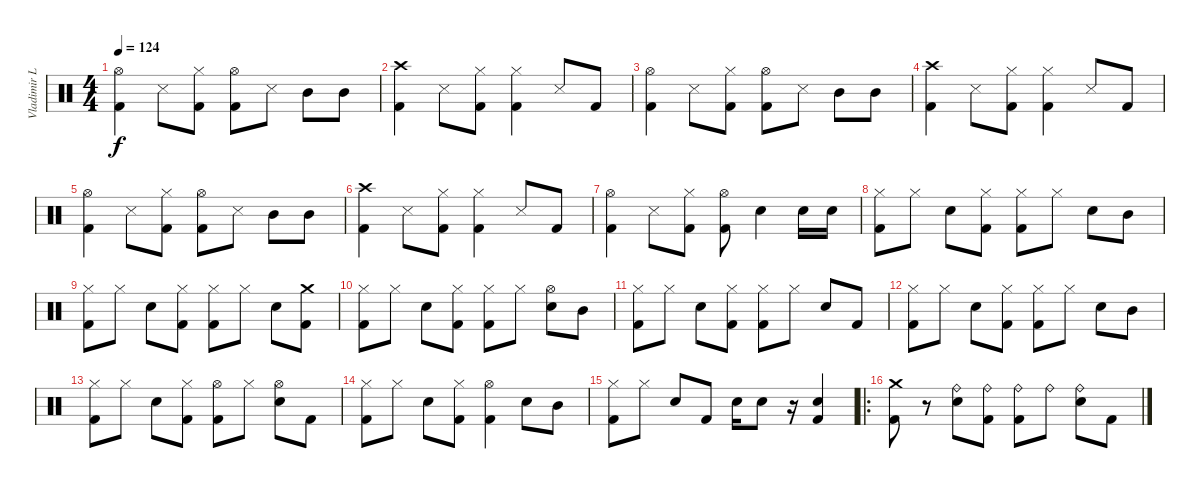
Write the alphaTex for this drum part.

\track ("Vladimir L." "Vladimir L") {instrument percussion}
\staff {score}
\articulation defaults
\ts (4 4)
\tempo 124
\clef neutral
\ks c
("Kick (hit) 2" "Hi-Hat (open)").4{dy f} "Snare (side stick) 3".8 ("Kick (hit) 2" "Hi-Hat (closed)").8 ("Kick (hit) 2" "Hi-Hat (open)").8 "Snare (side stick) 3".8 "Mid Tom (hit)".8 "Mid Tom (hit)".8 |
("Kick (hit) 2" "Crash high (hit)").4 "Snare (side stick) 3".8 ("Kick (hit) 2" "Hi-Hat (closed)").8 ("Kick (hit) 2" "Hi-Hat (closed)").4 "Snare (side stick) 3".8 "Kick (hit) 2".8 |
("Kick (hit) 2" "Hi-Hat (open)").4 "Snare (side stick) 3".8 ("Kick (hit) 2" "Hi-Hat (closed)").8 ("Kick (hit) 2" "Hi-Hat (open)").8 "Snare (side stick) 3".8 "Mid Tom (hit)".8 "Mid Tom (hit)".8 |
("Kick (hit) 2" "Crash high (hit)").4 "Snare (side stick) 3".8 ("Kick (hit) 2" "Hi-Hat (closed)").8 ("Kick (hit) 2" "Hi-Hat (closed)").4 "Snare (side stick) 3".8 "Kick (hit) 2".8 |
("Kick (hit) 2" "Hi-Hat (open)").4 "Snare (side stick) 3".8 ("Kick (hit) 2" "Hi-Hat (closed)").8 ("Kick (hit) 2" "Hi-Hat (open)").8 "Snare (side stick) 3".8 "Mid Tom (hit)".8 "Mid Tom (hit)".8 |
("Kick (hit) 2" "Crash high (hit)").4 "Snare (side stick) 3".8 ("Kick (hit) 2" "Hi-Hat (closed)").8 ("Kick (hit) 2" "Hi-Hat (closed)").4 "Snare (side stick) 3".8 "Kick (hit) 2".8 |
("Kick (hit) 2" "Hi-Hat (open)").4 "Snare (side stick) 3".8 ("Kick (hit) 2" "Hi-Hat (closed)").8 ("Kick (hit) 2" "Hi-Hat (open)").8 "Electric Snare (hit)".4 "Electric Snare (hit)".16 "Electric Snare (hit)".16 |
("Kick (hit) 2" "Hi-Hat (closed)").8 "Hi-Hat (closed)".8 "Electric Snare (hit)".8 ("Kick (hit) 2" "Hi-Hat (closed)").8 ("Kick (hit) 2" "Hi-Hat (closed)").8 "Hi-Hat (closed)".8 "Electric Snare (hit)".8 "Mid Tom (hit)".8 |
("Kick (hit) 2" "Hi-Hat (closed)").8 "Hi-Hat (closed)".8 "Electric Snare (hit)".8 ("Kick (hit) 2" "Hi-Hat (closed)").8 ("Kick (hit) 2" "Hi-Hat (closed)").8 "Hi-Hat (closed)".8 "Electric Snare (hit)".8 ("Kick (hit) 2" "Crash medium (hit)").8 |
("Kick (hit) 2" "Hi-Hat (closed)").8 "Hi-Hat (closed)".8 "Electric Snare (hit)".8 ("Kick (hit) 2" "Hi-Hat (closed)").8 ("Kick (hit) 2" "Hi-Hat (closed)").8 "Hi-Hat (closed)".8 ("Electric Snare (hit)" "Hi-Hat (open)").8 "Mid Tom (hit)".8 |
("Kick (hit) 2" "Hi-Hat (closed)").8 "Hi-Hat (closed)".8 "Electric Snare (hit)".8 ("Kick (hit) 2" "Hi-Hat (closed)").8 ("Kick (hit) 2" "Hi-Hat (closed)").8 "Hi-Hat (closed)".8 "Electric Snare (hit)".8 "Kick (hit) 2".8 |
("Kick (hit) 2" "Hi-Hat (closed)").8 "Hi-Hat (closed)".8 "Electric Snare (hit)".8 ("Kick (hit) 2" "Hi-Hat (closed)").8 ("Kick (hit) 2" "Hi-Hat (closed)").8 "Hi-Hat (closed)".8 "Electric Snare (hit)".8 "Mid Tom (hit)".8 |
("Kick (hit) 2" "Hi-Hat (closed)").8 "Hi-Hat (closed)".8 "Electric Snare (hit)".8 ("Kick (hit) 2" "Hi-Hat (closed)").8 ("Kick (hit) 2" "Hi-Hat (open)").8 "Hi-Hat (closed)".8 ("Electric Snare (hit)" "Hi-Hat (open)").8 "Kick (hit) 2".8 |
("Kick (hit) 2" "Hi-Hat (closed)").8 "Hi-Hat (closed)".8 "Electric Snare (hit)".8 ("Kick (hit) 2" "Hi-Hat (closed)").8 ("Kick (hit) 2" "Hi-Hat (open)").4 "Electric Snare (hit)".8 "Mid Tom (hit)".8 |
("Kick (hit) 2" "Hi-Hat (closed)").8 "Hi-Hat (closed)".8 "Electric Snare (hit)".8 "Kick (hit) 2".8 "Electric Snare (hit)".16 "Electric Snare (hit)".8 r.16 ("Electric Snare (hit)" "Kick (hit) 2").4 |
\ro
("Kick (hit) 2" "Crash medium (hit)").8 r.8 ("Electric Snare (hit)" "Ride (bell)").8 ("Kick (hit) 2" "Ride (bell)").8 ("Kick (hit) 2" "Ride (bell)").8 "Ride (bell)".8 ("Electric Snare (hit)" "Ride (bell)").8 "Kick (hit) 2".8
